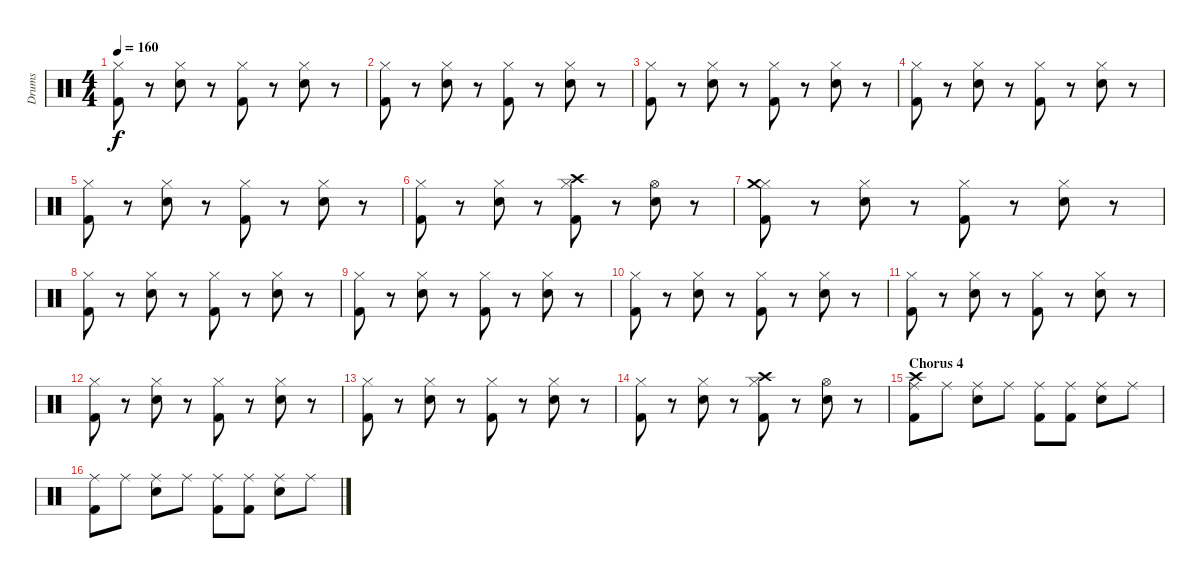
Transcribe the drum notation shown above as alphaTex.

\track ("Drums" "Drums") {instrument percussion}
\staff {score}
\articulation defaults
\ts (4 4)
\tempo 160
\clef neutral
\ks c
("Hi-Hat (closed)" "Kick (hit) 2").8{dy f} r.8 ("Hi-Hat (closed)" "Electric Snare (hit)").8 r.8 ("Hi-Hat (closed)" "Kick (hit) 2").8 r.8 ("Hi-Hat (closed)" "Electric Snare (hit)").8 r.8 |
("Hi-Hat (closed)" "Kick (hit) 2").8 r.8 ("Hi-Hat (closed)" "Electric Snare (hit)").8 r.8 ("Hi-Hat (closed)" "Kick (hit) 2").8 r.8 ("Hi-Hat (closed)" "Electric Snare (hit)").8 r.8 |
("Hi-Hat (closed)" "Kick (hit) 2").8 r.8 ("Hi-Hat (closed)" "Electric Snare (hit)").8 r.8 ("Hi-Hat (closed)" "Kick (hit) 2").8 r.8 ("Hi-Hat (closed)" "Electric Snare (hit)").8 r.8 |
("Hi-Hat (closed)" "Kick (hit) 2").8 r.8 ("Hi-Hat (closed)" "Electric Snare (hit)").8 r.8 ("Hi-Hat (closed)" "Kick (hit) 2").8 r.8 ("Hi-Hat (closed)" "Electric Snare (hit)").8 r.8 |
("Hi-Hat (closed)" "Kick (hit) 2").8 r.8 ("Hi-Hat (closed)" "Electric Snare (hit)").8 r.8 ("Hi-Hat (closed)" "Kick (hit) 2").8 r.8 ("Hi-Hat (closed)" "Electric Snare (hit)").8 r.8 |
("Hi-Hat (closed)" "Kick (hit) 2").8 r.8 ("Hi-Hat (closed)" "Electric Snare (hit)").8 r.8 ("Hi-Hat (closed)" "Kick (hit) 2" "Crash high (hit)").8 r.8 ("Hi-Hat (open)" "Electric Snare (hit)").8 r.8 |
("Hi-Hat (closed)" "Kick (hit) 2" "Crash medium (hit)").8 r.8 ("Hi-Hat (closed)" "Electric Snare (hit)").8 r.8 ("Hi-Hat (closed)" "Kick (hit) 2").8 r.8 ("Hi-Hat (closed)" "Electric Snare (hit)").8 r.8 |
("Hi-Hat (closed)" "Kick (hit) 2").8 r.8 ("Hi-Hat (closed)" "Electric Snare (hit)").8 r.8 ("Hi-Hat (closed)" "Kick (hit) 2").8 r.8 ("Hi-Hat (closed)" "Electric Snare (hit)").8 r.8 |
("Hi-Hat (closed)" "Kick (hit) 2").8 r.8 ("Hi-Hat (closed)" "Electric Snare (hit)").8 r.8 ("Hi-Hat (closed)" "Kick (hit) 2").8 r.8 ("Hi-Hat (closed)" "Electric Snare (hit)").8 r.8 |
("Hi-Hat (closed)" "Kick (hit) 2").8 r.8 ("Hi-Hat (closed)" "Electric Snare (hit)").8 r.8 ("Hi-Hat (closed)" "Kick (hit) 2").8 r.8 ("Hi-Hat (closed)" "Electric Snare (hit)").8 r.8 |
("Hi-Hat (closed)" "Kick (hit) 2").8 r.8 ("Hi-Hat (closed)" "Electric Snare (hit)").8 r.8 ("Hi-Hat (closed)" "Kick (hit) 2").8 r.8 ("Hi-Hat (closed)" "Electric Snare (hit)").8 r.8 |
("Hi-Hat (closed)" "Kick (hit) 2").8 r.8 ("Hi-Hat (closed)" "Electric Snare (hit)").8 r.8 ("Hi-Hat (closed)" "Kick (hit) 2").8 r.8 ("Hi-Hat (closed)" "Electric Snare (hit)").8 r.8 |
("Hi-Hat (closed)" "Kick (hit) 2").8 r.8 ("Hi-Hat (closed)" "Electric Snare (hit)").8 r.8 ("Hi-Hat (closed)" "Kick (hit) 2").8 r.8 ("Hi-Hat (closed)" "Electric Snare (hit)").8 r.8 |
("Hi-Hat (closed)" "Kick (hit) 2").8 r.8 ("Hi-Hat (closed)" "Electric Snare (hit)").8 r.8 ("Hi-Hat (closed)" "Kick (hit) 2" "Crash high (hit)").8 r.8 ("Hi-Hat (open)" "Electric Snare (hit)").8 r.8 |
\section ("" "Chorus 4")
("Ride (middle)" "Kick (hit) 2" "Crash high (hit)").8 "Ride (middle)".8 ("Ride (middle)" "Electric Snare (hit)").8 "Ride (middle)".8 ("Ride (middle)" "Kick (hit) 2").8 ("Ride (middle)" "Kick (hit) 2").8 ("Ride (middle)" "Electric Snare (hit)").8 "Ride (middle)".8 |
("Ride (middle)" "Kick (hit) 2").8 "Ride (middle)".8 ("Ride (middle)" "Electric Snare (hit)").8 "Ride (middle)".8 ("Ride (middle)" "Kick (hit) 2").8 ("Ride (middle)" "Kick (hit) 2").8 ("Ride (middle)" "Electric Snare (hit)").8 "Ride (middle)".8
